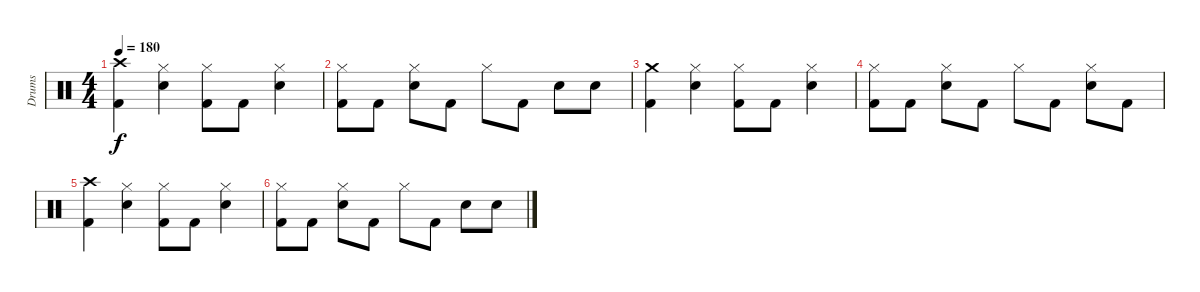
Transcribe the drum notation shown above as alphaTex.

\track ("Drums" "Drums") {instrument percussion}
\staff {score}
\articulation defaults
\ts (4 4)
\tempo 180
\clef neutral
\ks c
("Crash high (hit)" "Kick (hit) 2").4{dy f} ("Hi-Hat (closed)" "Electric Snare (hit)").4 ("Hi-Hat (closed)" "Kick (hit) 2").8 "Kick (hit) 2".8 ("Hi-Hat (closed)" "Electric Snare (hit)").4 |
("Hi-Hat (closed)" "Kick (hit) 2").8 "Kick (hit) 2".8 ("Hi-Hat (closed)" "Electric Snare (hit)").8 "Kick (hit) 2".8 "Hi-Hat (closed)".8 "Kick (hit) 2".8 "Electric Snare (hit)".8 "Electric Snare (hit)".8 |
("Crash medium (hit)" "Kick (hit) 2").4 ("Hi-Hat (closed)" "Electric Snare (hit)").4 ("Hi-Hat (closed)" "Kick (hit) 2").8 "Kick (hit) 2".8 ("Hi-Hat (closed)" "Electric Snare (hit)").4 |
("Hi-Hat (closed)" "Kick (hit) 2").8 "Kick (hit) 2".8 ("Hi-Hat (closed)" "Electric Snare (hit)").8 "Kick (hit) 2".8 "Hi-Hat (closed)".8 "Kick (hit) 2".8 ("Hi-Hat (closed)" "Electric Snare (hit)").8 "Kick (hit) 2".8 |
("Crash high (hit)" "Kick (hit) 2").4 ("Hi-Hat (closed)" "Electric Snare (hit)").4 ("Hi-Hat (closed)" "Kick (hit) 2").8 "Kick (hit) 2".8 ("Hi-Hat (closed)" "Electric Snare (hit)").4 |
("Hi-Hat (closed)" "Kick (hit) 2").8 "Kick (hit) 2".8 ("Hi-Hat (closed)" "Electric Snare (hit)").8 "Kick (hit) 2".8 "Hi-Hat (closed)".8 "Kick (hit) 2".8 "Electric Snare (hit)".8 "Electric Snare (hit)".8
